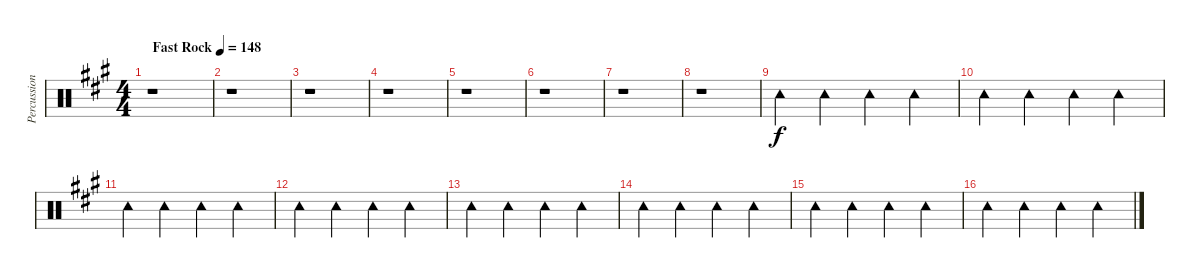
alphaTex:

\track ("Percussion" "Percussion") {instrument percussion}
\staff {score}
\articulation defaults
\ts (4 4)
\tempo (148 "Fast Rock")
\clef neutral
\ks a
r.1{dy f} |
r.1 |
r.1 |
r.1 |
r.1 |
r.1 |
r.1 |
r.1 |
"Tambourine (hit)".4 "Tambourine (hit)".4 "Tambourine (hit)".4 "Tambourine (hit)".4 |
"Tambourine (hit)".4 "Tambourine (hit)".4 "Tambourine (hit)".4 "Tambourine (hit)".4 |
"Tambourine (hit)".4 "Tambourine (hit)".4 "Tambourine (hit)".4 "Tambourine (hit)".4 |
"Tambourine (hit)".4 "Tambourine (hit)".4 "Tambourine (hit)".4 "Tambourine (hit)".4 |
"Tambourine (hit)".4 "Tambourine (hit)".4 "Tambourine (hit)".4 "Tambourine (hit)".4 |
"Tambourine (hit)".4 "Tambourine (hit)".4 "Tambourine (hit)".4 "Tambourine (hit)".4 |
"Tambourine (hit)".4 "Tambourine (hit)".4 "Tambourine (hit)".4 "Tambourine (hit)".4 |
"Tambourine (hit)".4 "Tambourine (hit)".4 "Tambourine (hit)".4 "Tambourine (hit)".4
